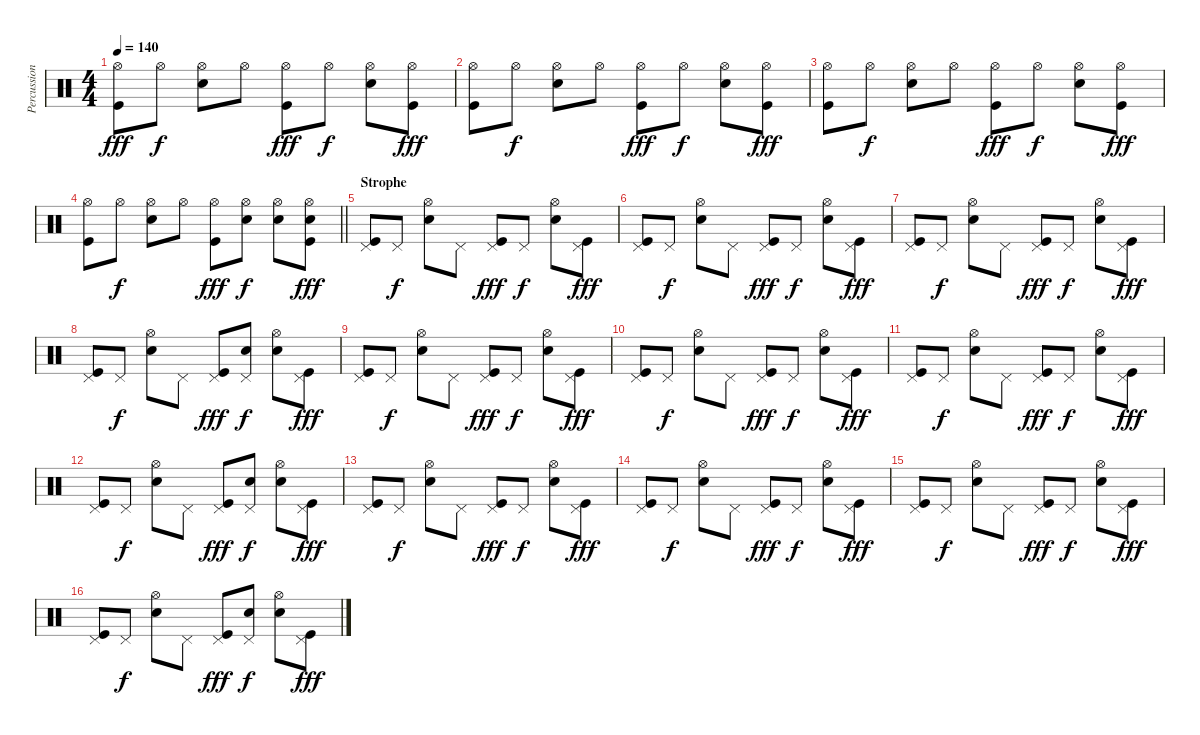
\track ("Percussion" "Percussion") {instrument percussion}
\staff {score}
\articulation defaults
\ts (4 4)
\tempo 140
\clef neutral
\ks c
("Kick (hit)" "Hi-Hat (open)").8{dy fff} "Hi-Hat (open)".8{dy f} ("Metronome (bell)" "Hi-Hat (open)").8 "Hi-Hat (open)".8 ("Kick (hit)" "Hi-Hat (open)").8{dy fff} "Hi-Hat (open)".8{dy f} ("Metronome (bell)" "Hi-Hat (open)").8 ("Kick (hit)" "Hi-Hat (open)").8{dy fff} |
("Kick (hit)" "Hi-Hat (open)").8 "Hi-Hat (open)".8{dy f} ("Metronome (bell)" "Hi-Hat (open)").8 "Hi-Hat (open)".8 ("Kick (hit)" "Hi-Hat (open)").8{dy fff} "Hi-Hat (open)".8{dy f} ("Metronome (bell)" "Hi-Hat (open)").8 ("Kick (hit)" "Hi-Hat (open)").8{dy fff} |
("Kick (hit)" "Hi-Hat (open)").8 "Hi-Hat (open)".8{dy f} ("Metronome (bell)" "Hi-Hat (open)").8 "Hi-Hat (open)".8 ("Kick (hit)" "Hi-Hat (open)").8{dy fff} "Hi-Hat (open)".8{dy f} ("Metronome (bell)" "Hi-Hat (open)").8 ("Kick (hit)" "Hi-Hat (open)").8{dy fff} |
\barLineRight lightlight
("Kick (hit)" "Hi-Hat (open)").8 "Hi-Hat (open)".8{dy f} ("Metronome (bell)" "Hi-Hat (open)").8 "Hi-Hat (open)".8 ("Kick (hit)" "Hi-Hat (open)").8{dy fff} ("Metronome (bell)" "Hi-Hat (open)").8{dy f} ("Metronome (bell)" "Hi-Hat (open)").8 ("Kick (hit)" "Metronome (bell)" "Hi-Hat (open)").8{dy fff} |
\section ("" "Strophe")
("Kick (hit)" "Pedal Hi-Hat (hit)").8 "Pedal Hi-Hat (hit)".8{dy f} ("Metronome (bell)" "Hi-Hat (open)").8 "Pedal Hi-Hat (hit)".8 ("Kick (hit)" "Pedal Hi-Hat (hit)").8{dy fff} "Pedal Hi-Hat (hit)".8{dy f} ("Metronome (bell)" "Hi-Hat (open)").8 ("Kick (hit)" "Pedal Hi-Hat (hit)").8{dy fff} |
("Kick (hit)" "Pedal Hi-Hat (hit)").8 "Pedal Hi-Hat (hit)".8{dy f} ("Metronome (bell)" "Hi-Hat (open)").8 "Pedal Hi-Hat (hit)".8 ("Kick (hit)" "Pedal Hi-Hat (hit)").8{dy fff} "Pedal Hi-Hat (hit)".8{dy f} ("Metronome (bell)" "Hi-Hat (open)").8 ("Kick (hit)" "Pedal Hi-Hat (hit)").8{dy fff} |
("Kick (hit)" "Pedal Hi-Hat (hit)").8 "Pedal Hi-Hat (hit)".8{dy f} ("Metronome (bell)" "Hi-Hat (open)").8 "Pedal Hi-Hat (hit)".8 ("Kick (hit)" "Pedal Hi-Hat (hit)").8{dy fff} "Pedal Hi-Hat (hit)".8{dy f} ("Metronome (bell)" "Hi-Hat (open)").8 ("Kick (hit)" "Pedal Hi-Hat (hit)").8{dy fff} |
("Kick (hit)" "Pedal Hi-Hat (hit)").8 "Pedal Hi-Hat (hit)".8{dy f} ("Metronome (bell)" "Hi-Hat (open)").8 "Pedal Hi-Hat (hit)".8 ("Kick (hit)" "Pedal Hi-Hat (hit)").8{dy fff} ("Metronome (bell)" "Pedal Hi-Hat (hit)").8{dy f} ("Metronome (bell)" "Hi-Hat (open)").8 ("Kick (hit)" "Pedal Hi-Hat (hit)").8{dy fff} |
("Kick (hit)" "Pedal Hi-Hat (hit)").8 "Pedal Hi-Hat (hit)".8{dy f} ("Metronome (bell)" "Hi-Hat (open)").8 "Pedal Hi-Hat (hit)".8 ("Kick (hit)" "Pedal Hi-Hat (hit)").8{dy fff} "Pedal Hi-Hat (hit)".8{dy f} ("Metronome (bell)" "Hi-Hat (open)").8 ("Kick (hit)" "Pedal Hi-Hat (hit)").8{dy fff} |
("Kick (hit)" "Pedal Hi-Hat (hit)").8 "Pedal Hi-Hat (hit)".8{dy f} ("Metronome (bell)" "Hi-Hat (open)").8 "Pedal Hi-Hat (hit)".8 ("Kick (hit)" "Pedal Hi-Hat (hit)").8{dy fff} "Pedal Hi-Hat (hit)".8{dy f} ("Metronome (bell)" "Hi-Hat (open)").8 ("Kick (hit)" "Pedal Hi-Hat (hit)").8{dy fff} |
("Kick (hit)" "Pedal Hi-Hat (hit)").8 "Pedal Hi-Hat (hit)".8{dy f} ("Metronome (bell)" "Hi-Hat (open)").8 "Pedal Hi-Hat (hit)".8 ("Kick (hit)" "Pedal Hi-Hat (hit)").8{dy fff} "Pedal Hi-Hat (hit)".8{dy f} ("Metronome (bell)" "Hi-Hat (open)").8 ("Kick (hit)" "Pedal Hi-Hat (hit)").8{dy fff} |
("Kick (hit)" "Pedal Hi-Hat (hit)").8 "Pedal Hi-Hat (hit)".8{dy f} ("Metronome (bell)" "Hi-Hat (open)").8 "Pedal Hi-Hat (hit)".8 ("Kick (hit)" "Pedal Hi-Hat (hit)").8{dy fff} ("Metronome (bell)" "Pedal Hi-Hat (hit)").8{dy f} ("Metronome (bell)" "Hi-Hat (open)").8 ("Kick (hit)" "Pedal Hi-Hat (hit)").8{dy fff} |
("Kick (hit)" "Pedal Hi-Hat (hit)").8 "Pedal Hi-Hat (hit)".8{dy f} ("Metronome (bell)" "Hi-Hat (open)").8 "Pedal Hi-Hat (hit)".8 ("Kick (hit)" "Pedal Hi-Hat (hit)").8{dy fff} "Pedal Hi-Hat (hit)".8{dy f} ("Metronome (bell)" "Hi-Hat (open)").8 ("Kick (hit)" "Pedal Hi-Hat (hit)").8{dy fff} |
("Kick (hit)" "Pedal Hi-Hat (hit)").8 "Pedal Hi-Hat (hit)".8{dy f} ("Metronome (bell)" "Hi-Hat (open)").8 "Pedal Hi-Hat (hit)".8 ("Kick (hit)" "Pedal Hi-Hat (hit)").8{dy fff} "Pedal Hi-Hat (hit)".8{dy f} ("Metronome (bell)" "Hi-Hat (open)").8 ("Kick (hit)" "Pedal Hi-Hat (hit)").8{dy fff} |
("Kick (hit)" "Pedal Hi-Hat (hit)").8 "Pedal Hi-Hat (hit)".8{dy f} ("Metronome (bell)" "Hi-Hat (open)").8 "Pedal Hi-Hat (hit)".8 ("Kick (hit)" "Pedal Hi-Hat (hit)").8{dy fff} "Pedal Hi-Hat (hit)".8{dy f} ("Metronome (bell)" "Hi-Hat (open)").8 ("Kick (hit)" "Pedal Hi-Hat (hit)").8{dy fff} |
("Kick (hit)" "Pedal Hi-Hat (hit)").8 "Pedal Hi-Hat (hit)".8{dy f} ("Metronome (bell)" "Hi-Hat (open)").8 "Pedal Hi-Hat (hit)".8 ("Kick (hit)" "Pedal Hi-Hat (hit)").8{dy fff} ("Metronome (bell)" "Pedal Hi-Hat (hit)").8{dy f} ("Metronome (bell)" "Hi-Hat (open)").8 ("Kick (hit)" "Pedal Hi-Hat (hit)").8{dy fff}
